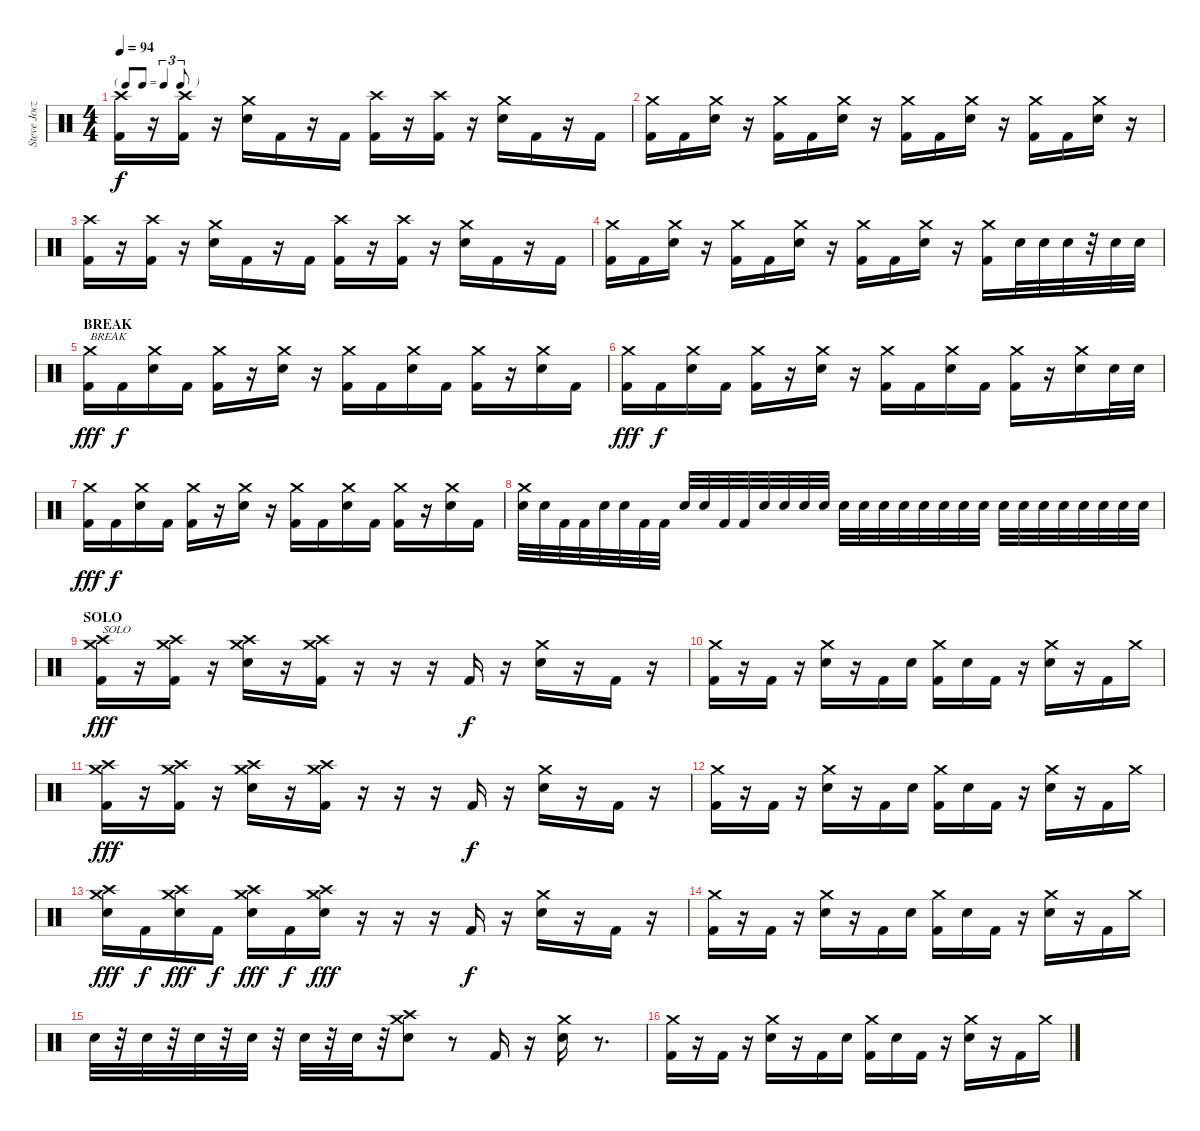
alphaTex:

\track ("Steve Jocz   \"Stevo32\"        (drums)" "Steve Jocz") {instrument percussion}
\staff {score}
\articulation defaults
\ts (4 4)
\tf triplet8th
\tempo 94
\clef neutral
\ks c
("Crash high (hit)" "Kick (hit) 2").16{dy f} r.16 ("Crash high (hit)" "Kick (hit) 2").16 r.16 ("Crash medium (hit)" "Electric Snare (hit)").16 "Kick (hit) 2".16 r.16 "Kick (hit) 2".16 ("Crash high (hit)" "Kick (hit) 2").16 r.16 ("Crash high (hit)" "Kick (hit) 2").16 r.16 ("Crash medium (hit)" "Electric Snare (hit)").16 "Kick (hit) 2".16 r.16 "Kick (hit) 2".16 |
("Crash medium (hit)" "Kick (hit) 2").16 "Kick (hit) 2".16 ("Crash medium (hit)" "Electric Snare (hit)").16 r.16 ("Crash medium (hit)" "Kick (hit) 2").16 "Kick (hit) 2".16 ("Crash medium (hit)" "Electric Snare (hit)").16 r.16 ("Crash medium (hit)" "Kick (hit) 2").16 "Kick (hit) 2".16 ("Crash medium (hit)" "Electric Snare (hit)").16 r.16 ("Crash medium (hit)" "Kick (hit) 2").16 "Kick (hit) 2".16 ("Crash medium (hit)" "Electric Snare (hit)").16 r.16 |
("Crash high (hit)" "Kick (hit) 2").16 r.16 ("Crash high (hit)" "Kick (hit) 2").16 r.16 ("Crash medium (hit)" "Electric Snare (hit)").16 "Kick (hit) 2".16 r.16 "Kick (hit) 2".16 ("Crash high (hit)" "Kick (hit) 2").16 r.16 ("Crash high (hit)" "Kick (hit) 2").16 r.16 ("Crash medium (hit)" "Electric Snare (hit)").16 "Kick (hit) 2".16 r.16 "Kick (hit) 2".16 |
("Crash medium (hit)" "Kick (hit) 2").16 "Kick (hit) 2".16 ("Crash medium (hit)" "Electric Snare (hit)").16 r.16 ("Crash medium (hit)" "Kick (hit) 2").16 "Kick (hit) 2".16 ("Crash medium (hit)" "Electric Snare (hit)").16 r.16 ("Crash medium (hit)" "Kick (hit) 2").16 "Kick (hit) 2".16 ("Crash medium (hit)" "Electric Snare (hit)").16 r.16 ("Crash medium (hit)" "Kick (hit) 2").16 "Electric Snare (hit)".32 "Electric Snare (hit)".32 "Electric Snare (hit)".32 r.32 "Electric Snare (hit)".32 "Electric Snare (hit)".32 |
\section ("" "BREAK")
("Crash medium (hit)" "Kick (hit) 2").16{txt "BREAK" dy fff} "Kick (hit) 2".16{dy f} ("Crash medium (hit)" "Electric Snare (hit)").16 "Kick (hit) 2".16 ("Crash medium (hit)" "Kick (hit) 2").16 r.16 ("Crash medium (hit)" "Electric Snare (hit)").16 r.16 ("Crash medium (hit)" "Kick (hit) 2").16 "Kick (hit) 2".16 ("Crash medium (hit)" "Electric Snare (hit)").16 "Kick (hit) 2".16 ("Crash medium (hit)" "Kick (hit) 2").16 r.16 ("Crash medium (hit)" "Electric Snare (hit)").16 "Kick (hit) 2".16 |
("Crash medium (hit)" "Kick (hit) 2").16{dy fff} "Kick (hit) 2".16{dy f} ("Crash medium (hit)" "Electric Snare (hit)").16 "Kick (hit) 2".16 ("Crash medium (hit)" "Kick (hit) 2").16 r.16 ("Crash medium (hit)" "Electric Snare (hit)").16 r.16 ("Crash medium (hit)" "Kick (hit) 2").16 "Kick (hit) 2".16 ("Crash medium (hit)" "Electric Snare (hit)").16 "Kick (hit) 2".16 ("Crash medium (hit)" "Kick (hit) 2").16 r.16 ("Crash medium (hit)" "Electric Snare (hit)").16 "Electric Snare (hit)".32 "Electric Snare (hit)".32 |
("Crash medium (hit)" "Kick (hit) 2").16{dy fff} "Kick (hit) 2".16{dy f} ("Crash medium (hit)" "Electric Snare (hit)").16 "Kick (hit) 2".16 ("Crash medium (hit)" "Kick (hit) 2").16 r.16 ("Crash medium (hit)" "Electric Snare (hit)").16 r.16 ("Crash medium (hit)" "Kick (hit) 2").16 "Kick (hit) 2".16 ("Crash medium (hit)" "Electric Snare (hit)").16 "Kick (hit) 2".16 ("Crash medium (hit)" "Kick (hit) 2").16 r.16 ("Crash medium (hit)" "Electric Snare (hit)").16 "Kick (hit) 2".16 |
("Crash medium (hit)" "Electric Snare (hit)").32 "Electric Snare (hit)".32 "Kick (hit) 2".32 "Kick (hit) 2".32 "Electric Snare (hit)".32 "Electric Snare (hit)".32 "Kick (hit) 2".32 "Kick (hit) 2".32 "Electric Snare (hit)".32 "Electric Snare (hit)".32 "Kick (hit) 2".32 "Kick (hit) 2".32 "Electric Snare (hit)".32 "Electric Snare (hit)".32 "Electric Snare (hit)".32 "Electric Snare (hit)".32 "Electric Snare (hit)".32 "Electric Snare (hit)".32 "Electric Snare (hit)".32 "Electric Snare (hit)".32 "Electric Snare (hit)".32 "Electric Snare (hit)".32 "Electric Snare (hit)".32 "Electric Snare (hit)".32 "Electric Snare (hit)".32 "Electric Snare (hit)".32 "Electric Snare (hit)".32 "Electric Snare (hit)".32 "Electric Snare (hit)".32 "Electric Snare (hit)".32 "Electric Snare (hit)".32 "Electric Snare (hit)".32 |
\section ("" "SOLO")
("Crash high (hit)" "Crash medium (hit)" "Kick (hit) 2").16{txt "SOLO" dy fff} r.16 ("Crash high (hit)" "Crash medium (hit)" "Kick (hit) 2").16 r.16 ("Crash high (hit)" "Crash medium (hit)" "Electric Snare (hit)").16 r.16 ("Crash high (hit)" "Crash medium (hit)" "Kick (hit) 2").16 r.16 r.16 r.16 "Kick (hit) 2".16{dy f} r.16 ("Crash medium (hit)" "Electric Snare (hit)").16 r.16 "Kick (hit) 2".16 r.16 |
("Crash medium (hit)" "Kick (hit) 2").16 r.16 "Kick (hit) 2".16 r.16 ("Crash medium (hit)" "Electric Snare (hit)").16 r.16 "Kick (hit) 2".16 "Electric Snare (hit)".16 ("Crash medium (hit)" "Kick (hit) 2").16 "Electric Snare (hit)".16 "Kick (hit) 2".16 r.16 ("Crash medium (hit)" "Electric Snare (hit)").16 r.16 "Kick (hit) 2".16 "Crash medium (hit)".16 |
("Crash high (hit)" "Crash medium (hit)" "Kick (hit) 2").16{dy fff} r.16 ("Crash high (hit)" "Crash medium (hit)" "Kick (hit) 2").16 r.16 ("Crash high (hit)" "Crash medium (hit)" "Electric Snare (hit)").16 r.16 ("Crash high (hit)" "Crash medium (hit)" "Kick (hit) 2").16 r.16 r.16 r.16 "Kick (hit) 2".16{dy f} r.16 ("Crash medium (hit)" "Electric Snare (hit)").16 r.16 "Kick (hit) 2".16 r.16 |
("Crash medium (hit)" "Kick (hit) 2").16 r.16 "Kick (hit) 2".16 r.16 ("Crash medium (hit)" "Electric Snare (hit)").16 r.16 "Kick (hit) 2".16 "Electric Snare (hit)".16 ("Crash medium (hit)" "Kick (hit) 2").16 "Electric Snare (hit)".16 "Kick (hit) 2".16 r.16 ("Crash medium (hit)" "Electric Snare (hit)").16 r.16 "Kick (hit) 2".16 "Crash medium (hit)".16 |
("Crash high (hit)" "Crash medium (hit)" "Electric Snare (hit)").16{dy fff} "Kick (hit) 2".16{dy f} ("Crash high (hit)" "Crash medium (hit)" "Electric Snare (hit)").16{dy fff} "Kick (hit) 2".16{dy f} ("Crash high (hit)" "Crash medium (hit)" "Electric Snare (hit)").16{dy fff} "Kick (hit) 2".16{dy f} ("Crash high (hit)" "Crash medium (hit)" "Electric Snare (hit)").16{dy fff} r.16 r.16 r.16 "Kick (hit) 2".16{dy f} r.16 ("Crash medium (hit)" "Electric Snare (hit)").16 r.16 "Kick (hit) 2".16 r.16 |
("Crash medium (hit)" "Kick (hit) 2").16 r.16 "Kick (hit) 2".16 r.16 ("Crash medium (hit)" "Electric Snare (hit)").16 r.16 "Kick (hit) 2".16 "Electric Snare (hit)".16 ("Crash medium (hit)" "Kick (hit) 2").16 "Electric Snare (hit)".16 "Kick (hit) 2".16 r.16 ("Crash medium (hit)" "Electric Snare (hit)").16 r.16 "Kick (hit) 2".16 "Crash medium (hit)".16 |
"Electric Snare (hit)".32 r.32 "Electric Snare (hit)".32 r.32 "Electric Snare (hit)".32 r.32 "Electric Snare (hit)".32 r.32 "Electric Snare (hit)".32 r.32 "Electric Snare (hit)".32 r.32 ("Crash medium (hit)" "Crash high (hit)" "Electric Snare (hit)").8 r.8 "Kick (hit) 2".16 r.16 ("Crash medium (hit)" "Electric Snare (hit)").16 r.8{d} |
("Crash medium (hit)" "Kick (hit) 2").16 r.16 "Kick (hit) 2".16 r.16 ("Crash medium (hit)" "Electric Snare (hit)").16 r.16 "Kick (hit) 2".16 "Electric Snare (hit)".16 ("Crash medium (hit)" "Kick (hit) 2").16 "Electric Snare (hit)".16 "Kick (hit) 2".16 r.16 ("Crash medium (hit)" "Electric Snare (hit)").16 r.16 "Kick (hit) 2".16 "Crash medium (hit)".16
